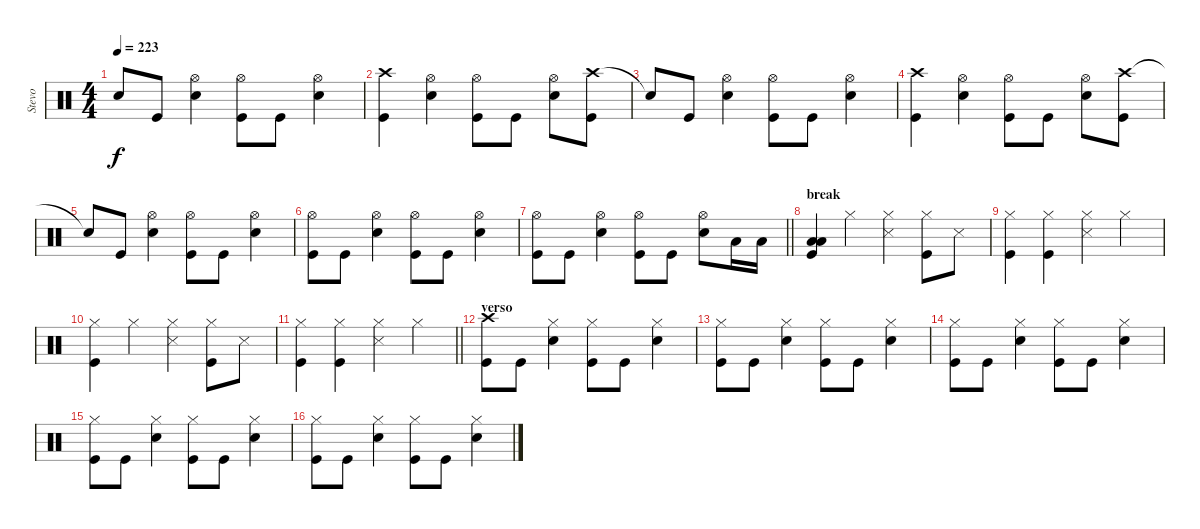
\track ("Stevo" "Stevo") {instrument percussion}
\staff {score}
\articulation defaults
\ts (4 4)
\tempo 223
\clef neutral
\ks c "Snare (hit)"{t}.8{dy f} "Kick (hit)".8
("Hi-Hat (open)" "Electric Snare (hit)").4 ("Hi-Hat (open)" "Kick (hit)").8 "Kick (hit)".8 ("Hi-Hat (open)" "Electric Snare (hit)").4 |
("Crash high (hit)" "Kick (hit)").4 ("Hi-Hat (open)" "Electric Snare (hit)").4 ("Hi-Hat (open)" "Kick (hit)").8 "Kick (hit)".8 ("Hi-Hat (open)" "Electric Snare (hit)").8 ("Crash high (hit)" "Kick (hit)").8 |
"Snare (hit)"{t}.8 "Kick (hit)".8 ("Hi-Hat (open)" "Electric Snare (hit)").4 ("Hi-Hat (open)" "Kick (hit)").8 "Kick (hit)".8 ("Hi-Hat (open)" "Electric Snare (hit)").4 |
("Crash high (hit)" "Kick (hit)").4 ("Hi-Hat (open)" "Electric Snare (hit)").4 ("Hi-Hat (open)" "Kick (hit)").8 "Kick (hit)".8 ("Hi-Hat (open)" "Electric Snare (hit)").8 ("Crash high (hit)" "Kick (hit)").8 |
"Snare (hit)"{t}.8 "Kick (hit)".8 ("Hi-Hat (open)" "Electric Snare (hit)").4 ("Hi-Hat (open)" "Kick (hit)").8 "Kick (hit)".8 ("Hi-Hat (open)" "Electric Snare (hit)").4 |
("Kick (hit)" "Hi-Hat (open)").8 "Kick (hit)".8 ("Electric Snare (hit)" "Hi-Hat (open)").4 ("Kick (hit)" "Hi-Hat (open)").8 "Kick (hit)".8 ("Electric Snare (hit)" "Hi-Hat (open)").4 |
\barLineRight lightlight
("Kick (hit)" "Hi-Hat (open)").8 "Kick (hit)".8 ("Electric Snare (hit)" "Hi-Hat (open)").4 ("Kick (hit)" "Hi-Hat (open)").8 "Kick (hit)".8 ("Electric Snare (hit)" "Hi-Hat (open)").8 "Low Floor Tom (hit)".16 "Low Floor Tom (hit)".16 |
\section ("" "break")
("Low Floor Tom (hit)" "Low Tom (hit)" "Kick (hit)").4 "Hi-Hat (closed)".4 ("Hi-Hat (closed)" "Snare (side stick) 3").4 ("Hi-Hat (closed)" "Kick (hit)").8 "Snare (side stick) 3".8 |
("Hi-Hat (closed)" "Kick (hit)").4 ("Hi-Hat (closed)" "Kick (hit)").4 ("Hi-Hat (closed)" "Snare (side stick) 3").4 "Hi-Hat (closed)".4 |
("Hi-Hat (closed)" "Kick (hit)").4 "Hi-Hat (closed)".4 ("Hi-Hat (closed)" "Snare (side stick) 3").4 ("Hi-Hat (closed)" "Kick (hit)").8 "Snare (side stick) 3".8 |
\barLineRight lightlight
("Hi-Hat (closed)" "Kick (hit)").4 ("Hi-Hat (closed)" "Kick (hit)").4 ("Hi-Hat (closed)" "Snare (side stick) 3").4 "Hi-Hat (closed)".4 |
\section ("" "verso")
("Crash high (hit)" "Kick (hit)").8 "Kick (hit)".8 ("Hi-Hat (closed)" "Electric Snare (hit)").4 ("Hi-Hat (closed)" "Kick (hit)").8 "Kick (hit)".8 ("Hi-Hat (closed)" "Electric Snare (hit)").4 |
("Hi-Hat (closed)" "Kick (hit)").8 "Kick (hit)".8 ("Hi-Hat (closed)" "Electric Snare (hit)").4 ("Hi-Hat (closed)" "Kick (hit)").8 "Kick (hit)".8 ("Hi-Hat (closed)" "Electric Snare (hit)").4 |
("Hi-Hat (closed)" "Kick (hit)").8 "Kick (hit)".8 ("Hi-Hat (closed)" "Electric Snare (hit)").4 ("Hi-Hat (closed)" "Kick (hit)").8 "Kick (hit)".8 ("Hi-Hat (closed)" "Electric Snare (hit)").4 |
("Hi-Hat (closed)" "Kick (hit)").8 "Kick (hit)".8 ("Hi-Hat (closed)" "Electric Snare (hit)").4 ("Hi-Hat (closed)" "Kick (hit)").8 "Kick (hit)".8 ("Hi-Hat (closed)" "Electric Snare (hit)").4 |
("Hi-Hat (closed)" "Kick (hit)").8 "Kick (hit)".8 ("Hi-Hat (closed)" "Electric Snare (hit)").4 ("Hi-Hat (closed)" "Kick (hit)").8 "Kick (hit)".8 ("Hi-Hat (closed)" "Electric Snare (hit)").4
